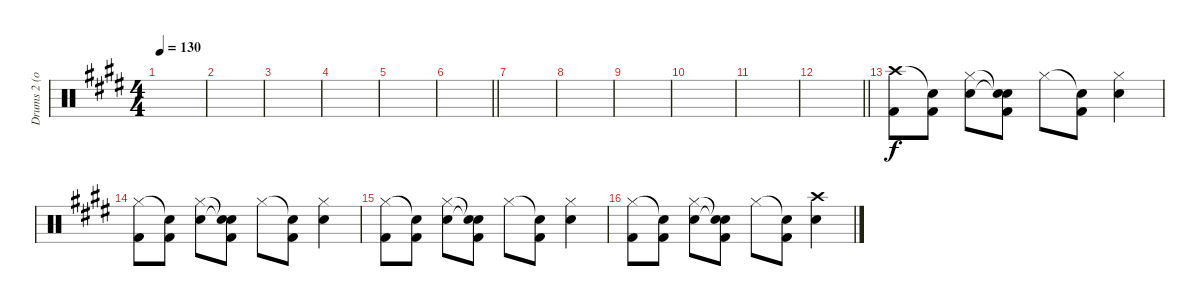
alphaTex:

\track ("Drums 2 (optional)" "Drums 2 (o") {instrument percussion}
\staff {score}
\articulation defaults
\ts (4 4)
\tempo 130
\clef neutral
\ks e
|
|
|
|
|
\barLineRight lightlight
|
|
|
|
|
|
\barLineRight lightlight
|
("Crash high (hit)" "Kick (hit) 2").8 ("Snare (hit)"{t} "Kick (hit) 2").8 ("Hi-Hat (closed)" "Snare (hit) 2").8 ("Snare (hit)"{t} "Snare (hit)"{t} "Kick (hit) 2").8 "Hi-Hat (closed)".8 ("Snare (hit)"{t} "Kick (hit) 2").8 ("Hi-Hat (closed)" "Snare (hit) 2").4 |
("Hi-Hat (closed)" "Kick (hit) 2").8 ("Snare (hit)"{t} "Kick (hit) 2").8 ("Hi-Hat (closed)" "Snare (hit) 2").8 ("Snare (hit)"{t} "Snare (hit)"{t} "Kick (hit) 2").8 "Hi-Hat (closed)".8 ("Snare (hit)"{t} "Kick (hit) 2").8 ("Hi-Hat (closed)" "Snare (hit) 2").4 |
("Hi-Hat (closed)" "Kick (hit) 2").8 ("Snare (hit)"{t} "Kick (hit) 2").8 ("Hi-Hat (closed)" "Snare (hit) 2").8 ("Snare (hit)"{t} "Snare (hit)"{t} "Kick (hit) 2").8 "Hi-Hat (closed)".8 ("Snare (hit)"{t} "Kick (hit) 2").8 ("Hi-Hat (closed)" "Snare (hit) 2").4 |
("Hi-Hat (closed)" "Kick (hit) 2").8 ("Snare (hit)"{t} "Kick (hit) 2").8 ("Hi-Hat (closed)" "Snare (hit) 2").8 ("Snare (hit)"{t} "Snare (hit)"{t} "Kick (hit) 2").8 "Hi-Hat (closed)".8 ("Snare (hit)"{t} "Kick (hit) 2").8 ("Crash high (hit)" "Snare (hit) 2").4
